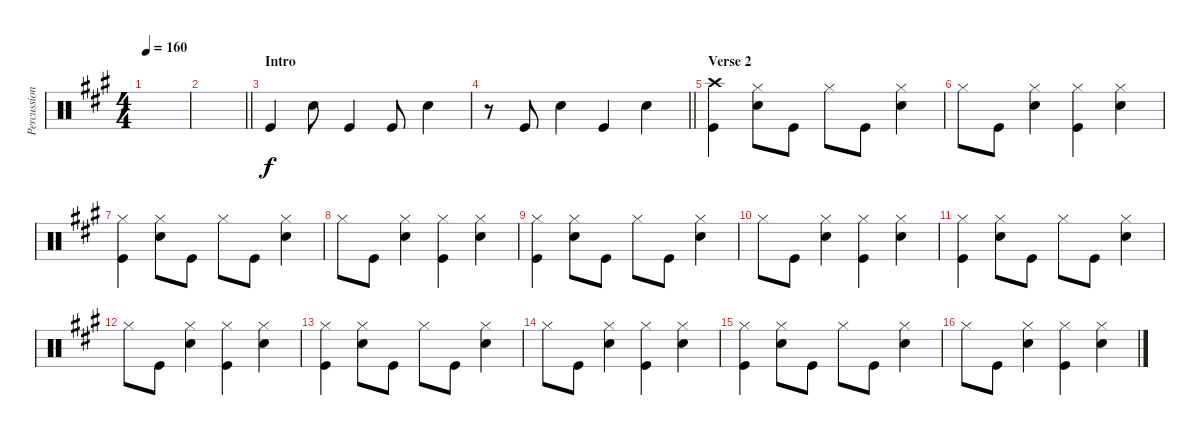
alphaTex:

\track ("Percussion" "Percussion") {instrument percussion}
\staff {score}
\articulation defaults
\ts (4 4)
\tempo 160
\clef neutral
\ks a
|
\barLineRight lightlight
|
\section ("" "Intro")
"Kick (hit)".4 "Snare (hit) 2".8 "Kick (hit)".4 "Kick (hit)".8 "Snare (hit) 2".4 |
\barLineRight lightlight
r.8 "Kick (hit)".8 "Snare (hit) 2".4 "Kick (hit)".4 "Snare (hit) 2".4 |
\section ("" "Verse 2")
("Kick (hit)" "Crash high (hit)").4 ("Snare (hit) 2" "Hi-Hat (closed)").8 "Kick (hit)".8 "Hi-Hat (closed)".8 "Kick (hit)".8 ("Snare (hit) 2" "Hi-Hat (closed)").4 |
"Hi-Hat (closed)".8 "Kick (hit)".8 ("Snare (hit) 2" "Hi-Hat (closed)").4 ("Kick (hit)" "Hi-Hat (closed)").4 ("Snare (hit) 2" "Hi-Hat (closed)").4 |
("Kick (hit)" "Hi-Hat (closed)").4 ("Snare (hit) 2" "Hi-Hat (closed)").8 "Kick (hit)".8 "Hi-Hat (closed)".8 "Kick (hit)".8 ("Snare (hit) 2" "Hi-Hat (closed)").4 |
"Hi-Hat (closed)".8 "Kick (hit)".8 ("Snare (hit) 2" "Hi-Hat (closed)").4 ("Kick (hit)" "Hi-Hat (closed)").4 ("Snare (hit) 2" "Hi-Hat (closed)").4 |
("Hi-Hat (closed)" "Kick (hit)").4 ("Snare (hit) 2" "Hi-Hat (closed)").8 "Kick (hit)".8 "Hi-Hat (closed)".8 "Kick (hit)".8 ("Snare (hit) 2" "Hi-Hat (closed)").4 |
"Hi-Hat (closed)".8 "Kick (hit)".8 ("Snare (hit) 2" "Hi-Hat (closed)").4 ("Kick (hit)" "Hi-Hat (closed)").4 ("Snare (hit) 2" "Hi-Hat (closed)").4 |
("Hi-Hat (closed)" "Kick (hit)").4 ("Snare (hit) 2" "Hi-Hat (closed)").8 "Kick (hit)".8 "Hi-Hat (closed)".8 "Kick (hit)".8 ("Snare (hit) 2" "Hi-Hat (closed)").4 |
"Hi-Hat (closed)".8 "Kick (hit)".8 ("Snare (hit) 2" "Hi-Hat (closed)").4 ("Kick (hit)" "Hi-Hat (closed)").4 ("Snare (hit) 2" "Hi-Hat (closed)").4 |
("Kick (hit)" "Hi-Hat (closed)").4 ("Snare (hit) 2" "Hi-Hat (closed)").8 "Kick (hit)".8 "Hi-Hat (closed)".8 "Kick (hit)".8 ("Snare (hit) 2" "Hi-Hat (closed)").4 |
"Hi-Hat (closed)".8 "Kick (hit)".8 ("Snare (hit) 2" "Hi-Hat (closed)").4 ("Kick (hit)" "Hi-Hat (closed)").4 ("Snare (hit) 2" "Hi-Hat (closed)").4 |
("Hi-Hat (closed)" "Kick (hit)").4 ("Snare (hit) 2" "Hi-Hat (closed)").8 "Kick (hit)".8 "Hi-Hat (closed)".8 "Kick (hit)".8 ("Snare (hit) 2" "Hi-Hat (closed)").4 |
"Hi-Hat (closed)".8 "Kick (hit)".8 ("Snare (hit) 2" "Hi-Hat (closed)").4 ("Kick (hit)" "Hi-Hat (closed)").4 ("Snare (hit) 2" "Hi-Hat (closed)").4
